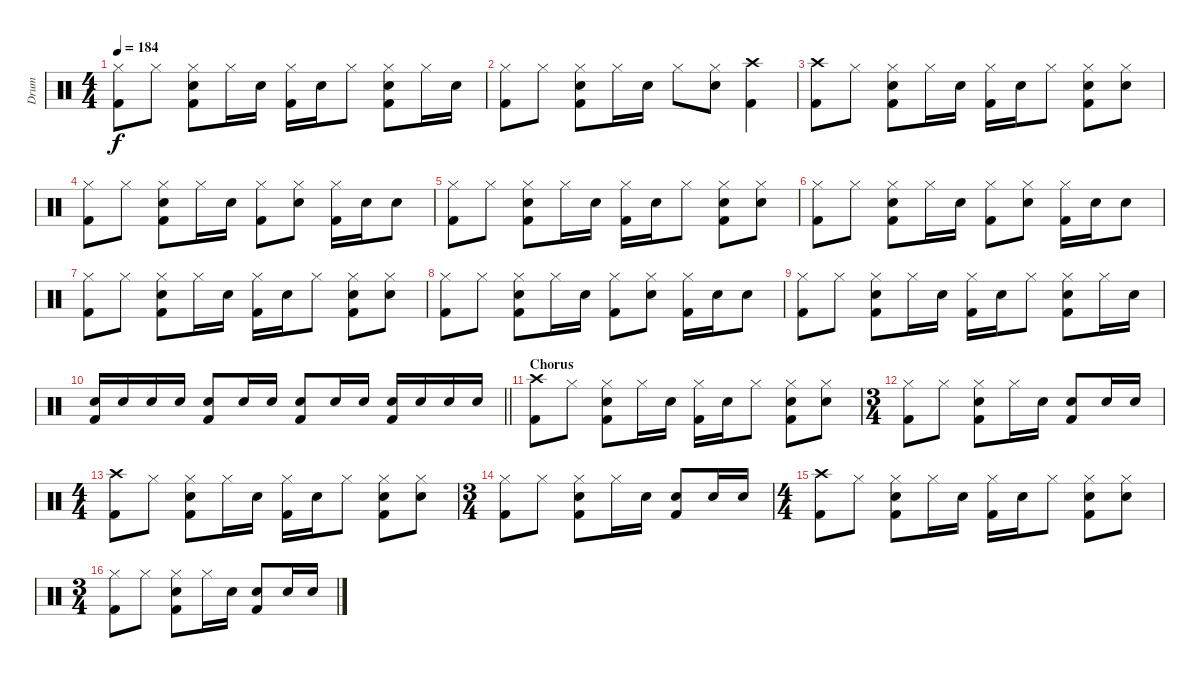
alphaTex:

\track ("Drum" "Drum") {instrument percussion}
\staff {score}
\articulation defaults
\ts (4 4)
\tempo 184
\clef neutral
\ks c
("Hi-Hat (closed)" "Kick (hit) 2").8{dy f} "Hi-Hat (closed)".8 ("Hi-Hat (closed)" "Electric Snare (hit)" "Kick (hit) 2").8 "Hi-Hat (closed)".16 "Electric Snare (hit)".16 ("Hi-Hat (closed)" "Kick (hit) 2").16 "Electric Snare (hit)".16 "Hi-Hat (closed)".8 ("Hi-Hat (closed)" "Electric Snare (hit)" "Kick (hit) 2").8 "Hi-Hat (closed)".16 "Electric Snare (hit)".16 |
("Hi-Hat (closed)" "Kick (hit) 2").8 "Hi-Hat (closed)".8 ("Hi-Hat (closed)" "Electric Snare (hit)" "Kick (hit) 2").8 "Hi-Hat (closed)".16 "Electric Snare (hit)".16 "Hi-Hat (closed)".8 ("Hi-Hat (closed)" "Electric Snare (hit)").8 ("Crash high (hit)" "Kick (hit) 2").4 |
("Crash high (hit)" "Kick (hit) 2").8 "Hi-Hat (closed)".8 ("Hi-Hat (closed)" "Electric Snare (hit)" "Kick (hit) 2").8 "Hi-Hat (closed)".16 "Electric Snare (hit)".16 ("Hi-Hat (closed)" "Kick (hit) 2").16 "Electric Snare (hit)".16 "Hi-Hat (closed)".8 ("Hi-Hat (closed)" "Electric Snare (hit)" "Kick (hit) 2").8 ("Hi-Hat (closed)" "Electric Snare (hit)").8 |
("Hi-Hat (closed)" "Kick (hit) 2").8 "Hi-Hat (closed)".8 ("Hi-Hat (closed)" "Electric Snare (hit)" "Kick (hit) 2").8 "Hi-Hat (closed)".16 "Electric Snare (hit)".16 ("Hi-Hat (closed)" "Kick (hit) 2").8 ("Hi-Hat (closed)" "Electric Snare (hit)").8 ("Hi-Hat (closed)" "Kick (hit) 2").16 "Electric Snare (hit)".16 "Electric Snare (hit)".8 |
("Hi-Hat (closed)" "Kick (hit) 2").8 "Hi-Hat (closed)".8 ("Hi-Hat (closed)" "Electric Snare (hit)" "Kick (hit) 2").8 "Hi-Hat (closed)".16 "Electric Snare (hit)".16 ("Hi-Hat (closed)" "Kick (hit) 2").16 "Electric Snare (hit)".16 "Hi-Hat (closed)".8 ("Hi-Hat (closed)" "Electric Snare (hit)" "Kick (hit) 2").8 ("Hi-Hat (closed)" "Electric Snare (hit)").8 |
("Hi-Hat (closed)" "Kick (hit) 2").8 "Hi-Hat (closed)".8 ("Hi-Hat (closed)" "Electric Snare (hit)" "Kick (hit) 2").8 "Hi-Hat (closed)".16 "Electric Snare (hit)".16 ("Hi-Hat (closed)" "Kick (hit) 2").8 ("Hi-Hat (closed)" "Electric Snare (hit)").8 ("Hi-Hat (closed)" "Kick (hit) 2").16 "Electric Snare (hit)".16 "Electric Snare (hit)".8 |
("Hi-Hat (closed)" "Kick (hit) 2").8 "Hi-Hat (closed)".8 ("Hi-Hat (closed)" "Electric Snare (hit)" "Kick (hit) 2").8 "Hi-Hat (closed)".16 "Electric Snare (hit)".16 ("Hi-Hat (closed)" "Kick (hit) 2").16 "Electric Snare (hit)".16 "Hi-Hat (closed)".8 ("Hi-Hat (closed)" "Electric Snare (hit)" "Kick (hit) 2").8 ("Hi-Hat (closed)" "Electric Snare (hit)").8 |
("Hi-Hat (closed)" "Kick (hit) 2").8 "Hi-Hat (closed)".8 ("Hi-Hat (closed)" "Electric Snare (hit)" "Kick (hit) 2").8 "Hi-Hat (closed)".16 "Electric Snare (hit)".16 ("Hi-Hat (closed)" "Kick (hit) 2").8 ("Hi-Hat (closed)" "Electric Snare (hit)").8 ("Hi-Hat (closed)" "Kick (hit) 2").16 "Electric Snare (hit)".16 "Electric Snare (hit)".8 |
("Hi-Hat (closed)" "Kick (hit) 2").8 "Hi-Hat (closed)".8 ("Hi-Hat (closed)" "Electric Snare (hit)" "Kick (hit) 2").8 "Hi-Hat (closed)".16 "Electric Snare (hit)".16 ("Hi-Hat (closed)" "Kick (hit) 2").16 "Electric Snare (hit)".16 "Hi-Hat (closed)".8 ("Hi-Hat (closed)" "Electric Snare (hit)" "Kick (hit) 2").8 "Hi-Hat (closed)".16 "Electric Snare (hit)".16 |
\barLineRight lightlight
("Electric Snare (hit)" "Kick (hit) 2").16 "Electric Snare (hit)".16 "Electric Snare (hit)".16 "Electric Snare (hit)".16 ("Electric Snare (hit)" "Kick (hit) 2").8 "Electric Snare (hit)".16 "Electric Snare (hit)".16 ("Electric Snare (hit)" "Kick (hit) 2").8 "Electric Snare (hit)".16 "Electric Snare (hit)".16 ("Electric Snare (hit)" "Kick (hit) 2").16 "Electric Snare (hit)".16 "Electric Snare (hit)".16 "Electric Snare (hit)".16 |
\section ("" "Chorus")
("Crash high (hit)" "Kick (hit) 2").8 "Hi-Hat (closed)".8 ("Hi-Hat (closed)" "Electric Snare (hit)" "Kick (hit) 2").8 "Hi-Hat (closed)".16 "Electric Snare (hit)".16 ("Hi-Hat (closed)" "Kick (hit) 2").16 "Electric Snare (hit)".16 "Hi-Hat (closed)".8 ("Hi-Hat (closed)" "Electric Snare (hit)" "Kick (hit) 2").8 ("Hi-Hat (closed)" "Electric Snare (hit)").8 |
\ts (3 4)
("Hi-Hat (closed)" "Kick (hit) 2").8 "Hi-Hat (closed)".8 ("Hi-Hat (closed)" "Electric Snare (hit)" "Kick (hit) 2").8 "Hi-Hat (closed)".16 "Electric Snare (hit)".16 ("Electric Snare (hit)" "Kick (hit) 2").8 "Electric Snare (hit)".16 "Electric Snare (hit)".16 |
\ts (4 4)
("Crash high (hit)" "Kick (hit) 2").8 "Hi-Hat (closed)".8 ("Hi-Hat (closed)" "Electric Snare (hit)" "Kick (hit) 2").8 "Hi-Hat (closed)".16 "Electric Snare (hit)".16 ("Hi-Hat (closed)" "Kick (hit) 2").16 "Electric Snare (hit)".16 "Hi-Hat (closed)".8 ("Hi-Hat (closed)" "Electric Snare (hit)" "Kick (hit) 2").8 ("Hi-Hat (closed)" "Electric Snare (hit)").8 |
\ts (3 4)
("Hi-Hat (closed)" "Kick (hit) 2").8 "Hi-Hat (closed)".8 ("Hi-Hat (closed)" "Electric Snare (hit)" "Kick (hit) 2").8 "Hi-Hat (closed)".16 "Electric Snare (hit)".16 ("Electric Snare (hit)" "Kick (hit) 2").8 "Electric Snare (hit)".16 "Electric Snare (hit)".16 |
\ts (4 4)
("Crash high (hit)" "Kick (hit) 2").8 "Hi-Hat (closed)".8 ("Hi-Hat (closed)" "Electric Snare (hit)" "Kick (hit) 2").8 "Hi-Hat (closed)".16 "Electric Snare (hit)".16 ("Hi-Hat (closed)" "Kick (hit) 2").16 "Electric Snare (hit)".16 "Hi-Hat (closed)".8 ("Hi-Hat (closed)" "Electric Snare (hit)" "Kick (hit) 2").8 ("Hi-Hat (closed)" "Electric Snare (hit)").8 |
\ts (3 4)
("Hi-Hat (closed)" "Kick (hit) 2").8 "Hi-Hat (closed)".8 ("Hi-Hat (closed)" "Electric Snare (hit)" "Kick (hit) 2").8 "Hi-Hat (closed)".16 "Electric Snare (hit)".16 ("Electric Snare (hit)" "Kick (hit) 2").8 "Electric Snare (hit)".16 "Electric Snare (hit)".16
